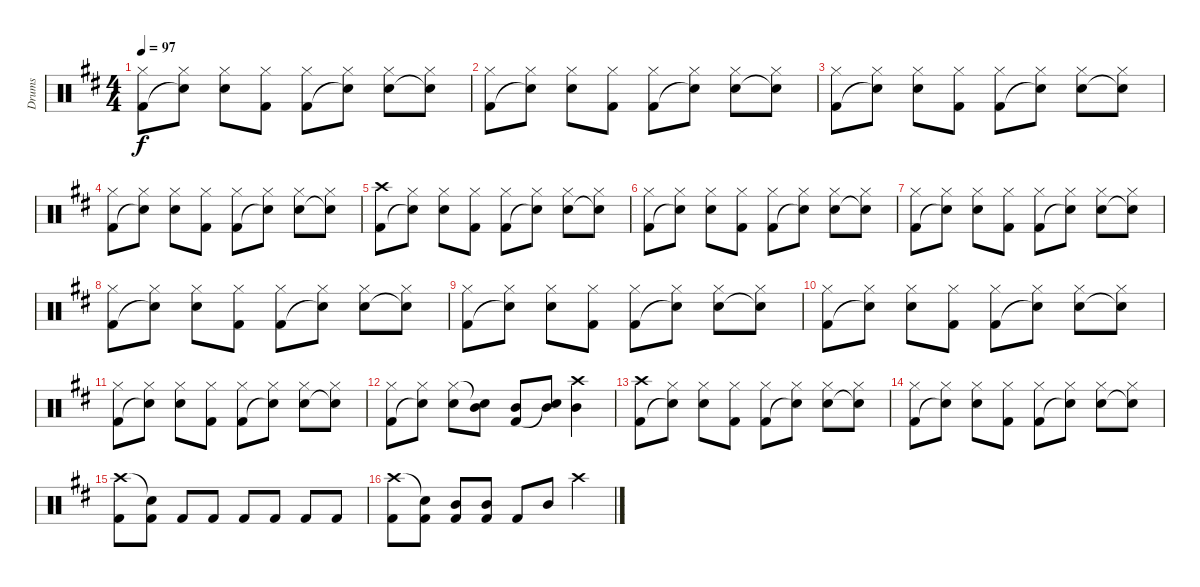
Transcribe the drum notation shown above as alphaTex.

\track ("Drums" "Drums") {instrument percussion}
\staff {score}
\articulation defaults
\ts (4 4)
\tempo 97
\clef neutral
\ks d
("Hi-Hat (closed)" "Kick (hit) 2").8{dy f} ("Hi-Hat (closed)" "Snare (hit)"{t}).8 ("Hi-Hat (closed)" "Snare (hit) 2").8 ("Hi-Hat (closed)" "Kick (hit) 2").8 ("Hi-Hat (closed)" "Kick (hit) 2").8 ("Hi-Hat (closed)" "Snare (hit)"{t}).8 ("Hi-Hat (closed)" "Snare (hit) 2").8 ("Hi-Hat (closed)" "Snare (hit)"{t}).8 |
("Hi-Hat (closed)" "Kick (hit) 2").8 ("Hi-Hat (closed)" "Snare (hit)"{t}).8 ("Hi-Hat (closed)" "Snare (hit) 2").8 ("Hi-Hat (closed)" "Kick (hit) 2").8 ("Hi-Hat (closed)" "Kick (hit) 2").8 ("Hi-Hat (closed)" "Snare (hit)"{t}).8 ("Hi-Hat (closed)" "Snare (hit) 2").8 ("Hi-Hat (closed)" "Snare (hit)"{t}).8 |
("Hi-Hat (closed)" "Kick (hit) 2").8 ("Hi-Hat (closed)" "Snare (hit)"{t}).8 ("Hi-Hat (closed)" "Snare (hit) 2").8 ("Hi-Hat (closed)" "Kick (hit) 2").8 ("Hi-Hat (closed)" "Kick (hit) 2").8 ("Hi-Hat (closed)" "Snare (hit)"{t}).8 ("Hi-Hat (closed)" "Snare (hit) 2").8 ("Hi-Hat (closed)" "Snare (hit)"{t}).8 |
("Hi-Hat (closed)" "Kick (hit) 2").8 ("Hi-Hat (closed)" "Snare (hit)"{t}).8 ("Hi-Hat (closed)" "Snare (hit) 2").8 ("Hi-Hat (closed)" "Kick (hit) 2").8 ("Hi-Hat (closed)" "Kick (hit) 2").8 ("Hi-Hat (closed)" "Snare (hit)"{t}).8 ("Hi-Hat (closed)" "Snare (hit) 2").8 ("Hi-Hat (closed)" "Snare (hit)"{t}).8 |
("Crash high (hit)" "Kick (hit) 2").8 ("Hi-Hat (closed)" "Snare (hit)"{t}).8 ("Hi-Hat (closed)" "Snare (hit) 2").8 ("Hi-Hat (closed)" "Kick (hit) 2").8 ("Hi-Hat (closed)" "Kick (hit) 2").8 ("Hi-Hat (closed)" "Snare (hit)"{t}).8 ("Hi-Hat (closed)" "Snare (hit) 2").8 ("Hi-Hat (closed)" "Snare (hit)"{t}).8 |
("Hi-Hat (closed)" "Kick (hit) 2").8 ("Hi-Hat (closed)" "Snare (hit)"{t}).8 ("Hi-Hat (closed)" "Snare (hit) 2").8 ("Hi-Hat (closed)" "Kick (hit) 2").8 ("Hi-Hat (closed)" "Kick (hit) 2").8 ("Hi-Hat (closed)" "Snare (hit)"{t}).8 ("Hi-Hat (closed)" "Snare (hit) 2").8 ("Hi-Hat (closed)" "Snare (hit)"{t}).8 |
("Hi-Hat (closed)" "Kick (hit) 2").8 ("Hi-Hat (closed)" "Snare (hit)"{t}).8 ("Hi-Hat (closed)" "Snare (hit) 2").8 ("Hi-Hat (closed)" "Kick (hit) 2").8 ("Hi-Hat (closed)" "Kick (hit) 2").8 ("Hi-Hat (closed)" "Snare (hit)"{t}).8 ("Hi-Hat (closed)" "Snare (hit) 2").8 ("Hi-Hat (closed)" "Snare (hit)"{t}).8 |
("Hi-Hat (closed)" "Kick (hit) 2").8 ("Hi-Hat (closed)" "Snare (hit)"{t}).8 ("Hi-Hat (closed)" "Snare (hit) 2").8 ("Hi-Hat (closed)" "Kick (hit) 2").8 ("Hi-Hat (closed)" "Kick (hit) 2").8 ("Hi-Hat (closed)" "Snare (hit)"{t}).8 ("Hi-Hat (closed)" "Snare (hit) 2").8 ("Hi-Hat (closed)" "Snare (hit)"{t}).8 |
("Hi-Hat (closed)" "Kick (hit) 2").8 ("Hi-Hat (closed)" "Snare (hit)"{t}).8 ("Hi-Hat (closed)" "Snare (hit) 2").8 ("Hi-Hat (closed)" "Kick (hit) 2").8 ("Hi-Hat (closed)" "Kick (hit) 2").8 ("Hi-Hat (closed)" "Snare (hit)"{t}).8 ("Hi-Hat (closed)" "Snare (hit) 2").8 ("Hi-Hat (closed)" "Snare (hit)"{t}).8 |
("Hi-Hat (closed)" "Kick (hit) 2").8 ("Hi-Hat (closed)" "Snare (hit)"{t}).8 ("Hi-Hat (closed)" "Snare (hit) 2").8 ("Hi-Hat (closed)" "Kick (hit) 2").8 ("Hi-Hat (closed)" "Kick (hit) 2").8 ("Hi-Hat (closed)" "Snare (hit)"{t}).8 ("Hi-Hat (closed)" "Snare (hit) 2").8 ("Hi-Hat (closed)" "Snare (hit)"{t}).8 |
("Hi-Hat (closed)" "Kick (hit) 2").8 ("Hi-Hat (closed)" "Snare (hit)"{t}).8 ("Hi-Hat (closed)" "Snare (hit) 2").8 ("Hi-Hat (closed)" "Kick (hit) 2").8 ("Hi-Hat (closed)" "Kick (hit) 2").8 ("Hi-Hat (closed)" "Snare (hit)"{t}).8 ("Hi-Hat (closed)" "Snare (hit) 2").8 ("Hi-Hat (closed)" "Snare (hit)"{t}).8 |
("Hi-Hat (closed)" "Kick (hit) 2").8 ("Hi-Hat (closed)" "Snare (hit)"{t}).8 ("Hi-Hat (closed)" "Snare (hit) 2").8 ("Snare (hit)"{t} "Mid Tom (hit)").8 ("Mid Tom (hit)" "Kick (hit) 2").8 ("Mid Tom (hit)" "Snare (hit)"{t}).8 ("Crash high (hit)" "Mid Tom (hit)").4 |
("Crash high (hit)" "Kick (hit) 2").8 ("Hi-Hat (closed)" "Snare (hit)"{t}).8 ("Hi-Hat (closed)" "Snare (hit) 2").8 ("Hi-Hat (closed)" "Kick (hit) 2").8 ("Hi-Hat (closed)" "Kick (hit) 2").8 ("Hi-Hat (closed)" "Snare (hit)"{t}).8 ("Hi-Hat (closed)" "Snare (hit) 2").8 ("Hi-Hat (closed)" "Snare (hit)"{t}).8 |
("Hi-Hat (closed)" "Kick (hit) 2").8 ("Hi-Hat (closed)" "Snare (hit)"{t}).8 ("Hi-Hat (closed)" "Snare (hit) 2").8 ("Hi-Hat (closed)" "Kick (hit) 2").8 ("Hi-Hat (closed)" "Kick (hit) 2").8 ("Hi-Hat (closed)" "Snare (hit)"{t}).8 ("Hi-Hat (closed)" "Snare (hit) 2").8 ("Hi-Hat (closed)" "Snare (hit)"{t}).8 |
("Crash high (hit)" "Kick (hit) 2").8 ("Snare (hit)"{t} "Kick (hit) 2").8 "Kick (hit) 2".8 "Kick (hit) 2".8 "Kick (hit) 2".8 "Kick (hit) 2".8 "Kick (hit) 2".8 "Kick (hit) 2".8 |
("Crash high (hit)" "Kick (hit) 2").8 ("Snare (hit)"{t} "Kick (hit) 2").8 ("Mid Tom (hit)" "Kick (hit) 2").8 ("Mid Tom (hit)" "Kick (hit) 2").8 "Kick (hit) 2".8 "Mid Tom (hit)".8 "Crash high (hit)".4
